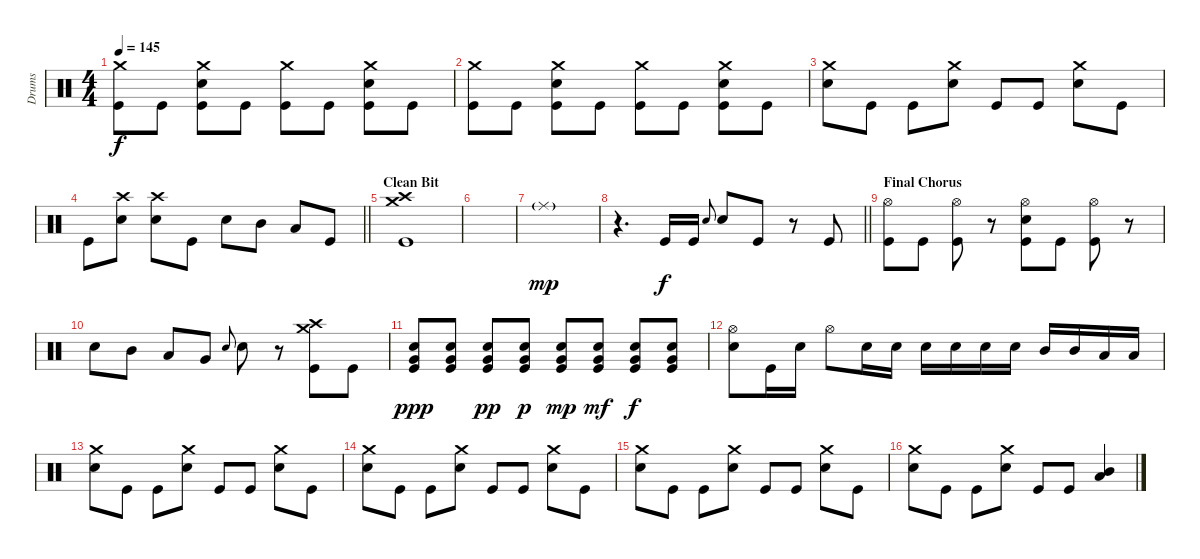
\track ("Drums" "Drums") {instrument percussion}
\staff {score}
\articulation defaults
\ts (4 4)
\tempo 145
\clef neutral
\ks c
("Crash medium (hit)" "Kick (hit)").8{dy f} "Kick (hit)".8 ("Crash medium (hit)" "Snare (hit) 2" "Kick (hit)").8 "Kick (hit)".8 ("Crash medium (hit)" "Kick (hit)").8 "Kick (hit)".8 ("Crash medium (hit)" "Snare (hit) 2" "Kick (hit)").8 "Kick (hit)".8 |
("Crash medium (hit)" "Kick (hit)").8 "Kick (hit)".8 ("Crash medium (hit)" "Snare (hit) 2" "Kick (hit)").8 "Kick (hit)".8 ("Crash medium (hit)" "Kick (hit)").8 "Kick (hit)".8 ("Crash medium (hit)" "Snare (hit) 2" "Kick (hit)").8 "Kick (hit)".8 |
("Crash medium (hit)" "Snare (hit) 2").8 "Kick (hit)".8 "Kick (hit)".8 ("Crash medium (hit)" "Snare (hit) 2").8 "Kick (hit)".8 "Kick (hit)".8 ("Crash medium (hit)" "Snare (hit) 2").8 "Kick (hit)".8 |
\barLineRight lightlight "Kick (hit)".8
("Crash high (hit)" "Snare (hit) 2").8 ("Crash high (hit)" "Snare (hit) 2").8 "Kick (hit)".8 "Snare (hit) 2".8 "Mid Tom (hit)".8 "Low Tom (hit)".8 "Kick (hit)".8 |
\section ("" "Clean Bit")
("Crash medium (hit)" "Crash high (hit)" "Kick (hit)").1 |
|
"Ride (middle)"{g}.1{dy mp} |
\barLineRight lightlight
r.4{d} "Kick (hit)".16{dy f} "Kick (hit)".16 "Snare (hit) 2".8{gr onbeat} "Snare (hit) 2".8 "Kick (hit)".8 r.8 "Kick (hit)".8 |
\section ("" "Final Chorus")
("Hi-Hat (open)" "Kick (hit)").8 "Kick (hit)".8 ("Hi-Hat (open)" "Kick (hit)").8 r.8 ("Hi-Hat (open)" "Snare (hit) 2" "Kick (hit)").8 "Kick (hit)".8 ("Hi-Hat (open)" "Kick (hit)").8 r.8 |
"Snare (hit) 2".8 "Mid Tom (hit)".8 "Low Tom (hit)".8 "Very Low Tom (hit)".8 "Snare (hit) 2".8{gr onbeat} "Snare (hit) 2".8 r.8 ("Crash medium (hit)" "Crash high (hit)" "Kick (hit)").8 "Kick (hit)".8 |
("Very Low Tom (hit)" "Snare (hit) 2" "Kick (hit)").8{dy ppp} ("Very Low Tom (hit)" "Snare (hit) 2" "Kick (hit)").8 ("Very Low Tom (hit)" "Snare (hit) 2" "Kick (hit)").8{dy pp} ("Very Low Tom (hit)" "Snare (hit) 2" "Kick (hit)").8{dy p} ("Very Low Tom (hit)" "Snare (hit) 2" "Kick (hit)").8{dy mp} ("Very Low Tom (hit)" "Snare (hit) 2" "Kick (hit)").8{dy mf} ("Very Low Tom (hit)" "Snare (hit) 2" "Kick (hit)").8{dy f} ("Very Low Tom (hit)" "Snare (hit) 2" "Kick (hit)").8 |
("Hi-Hat (open)" "Snare (hit) 2").8 "Kick (hit)".16 "Snare (hit) 2".16 "Hi-Hat (open)".8 "Snare (hit) 2".16 "Snare (hit) 2".16 "Snare (hit) 2".16 "Snare (hit) 2".16 "Snare (hit) 2".16 "Snare (hit) 2".16 "Mid Tom (hit)".16 "Mid Tom (hit)".16 "Low Tom (hit)".16 "Low Tom (hit)".16 |
("Crash medium (hit)" "Snare (hit) 2").8 "Kick (hit)".8 "Kick (hit)".8 ("Crash medium (hit)" "Snare (hit) 2").8 "Kick (hit)".8 "Kick (hit)".8 ("Crash medium (hit)" "Snare (hit) 2").8 "Kick (hit)".8 |
("Crash medium (hit)" "Snare (hit) 2").8 "Kick (hit)".8 "Kick (hit)".8 ("Crash medium (hit)" "Snare (hit) 2").8 "Kick (hit)".8 "Kick (hit)".8 ("Crash medium (hit)" "Snare (hit) 2").8 "Kick (hit)".8 |
("Crash medium (hit)" "Snare (hit) 2").8 "Kick (hit)".8 "Kick (hit)".8 ("Crash medium (hit)" "Snare (hit) 2").8 "Kick (hit)".8 "Kick (hit)".8 ("Crash medium (hit)" "Snare (hit) 2").8 "Kick (hit)".8 |
("Crash medium (hit)" "Snare (hit) 2").8 "Kick (hit)".8 "Kick (hit)".8 ("Crash medium (hit)" "Snare (hit) 2").8 "Kick (hit)".8 "Kick (hit)".8 ("Mid Tom (hit)" "Low Tom (hit)").4
